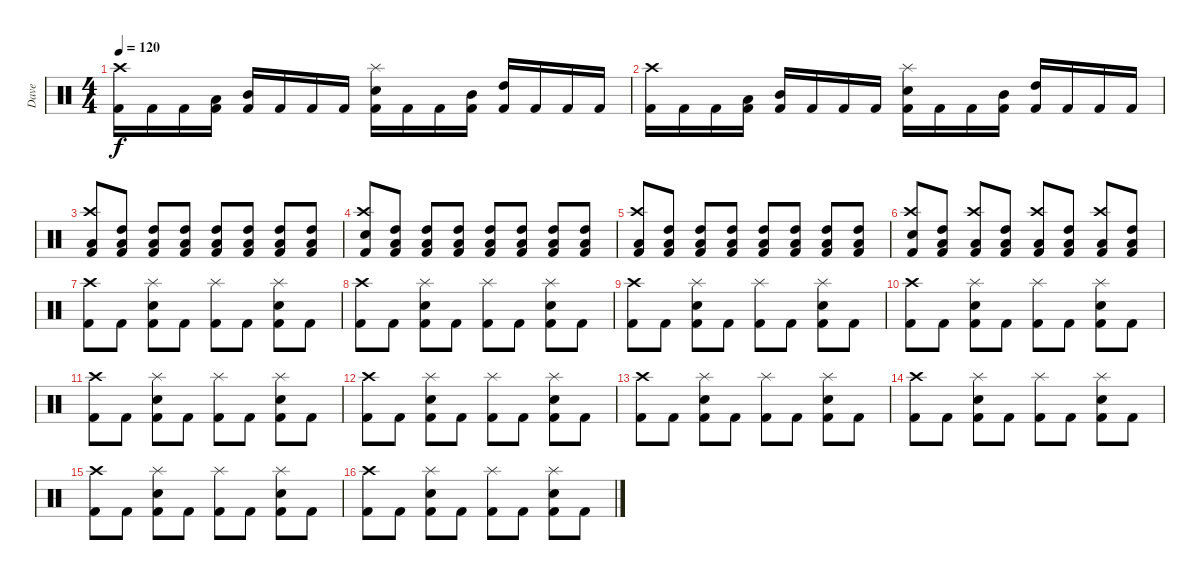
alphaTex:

\track ("Dave" "Dave") {instrument percussion}
\staff {score}
\articulation defaults
\ts (4 4)
\tempo 120
\clef neutral
\ks c
("Kick (hit) 2" "Crash high (hit)").16{dy f} "Kick (hit) 2".16 "Kick (hit) 2".16 ("Kick (hit) 2" "Low Tom (hit)").16 ("Kick (hit) 2" "Mid Tom (hit)").16 "Kick (hit) 2".16 "Kick (hit) 2".16 "Kick (hit) 2".16 ("Kick (hit) 2" "Snare (hit) 2" "Splash (hit)").16 "Kick (hit) 2".16 "Kick (hit) 2".16 ("Kick (hit) 2" "Mid Tom (hit)").16 ("Kick (hit) 2" "High Tom (hit)").16 "Kick (hit) 2".16 "Kick (hit) 2".16 "Kick (hit) 2".16 |
("Kick (hit) 2" "Crash high (hit)").16 "Kick (hit) 2".16 "Kick (hit) 2".16 ("Kick (hit) 2" "Low Tom (hit)").16 ("Kick (hit) 2" "Mid Tom (hit)").16 "Kick (hit) 2".16 "Kick (hit) 2".16 "Kick (hit) 2".16 ("Kick (hit) 2" "Snare (hit) 2" "Splash (hit)").16 "Kick (hit) 2".16 "Kick (hit) 2".16 ("Kick (hit) 2" "Mid Tom (hit)").16 ("Kick (hit) 2" "High Tom (hit)").16 "Kick (hit) 2".16 "Kick (hit) 2".16 "Kick (hit) 2".16 |
("Kick (hit) 2" "Crash high (hit)" "Low Floor Tom (hit)").8 ("Kick (hit) 2" "High Tom (hit)" "Low Floor Tom (hit)").8 ("Kick (hit) 2" "High Tom (hit)" "Low Floor Tom (hit)").8 ("Kick (hit) 2" "High Tom (hit)" "Low Floor Tom (hit)").8 ("Kick (hit) 2" "High Tom (hit)" "Low Floor Tom (hit)").8 ("Kick (hit) 2" "High Tom (hit)" "Low Floor Tom (hit)").8 ("Kick (hit) 2" "High Tom (hit)" "Low Floor Tom (hit)").8 ("Kick (hit) 2" "High Tom (hit)" "Low Floor Tom (hit)").8 |
("Kick (hit) 2" "Snare (hit) 2" "Crash high (hit)").8 ("Kick (hit) 2" "High Tom (hit)" "Low Floor Tom (hit)").8 ("Kick (hit) 2" "High Tom (hit)" "Low Floor Tom (hit)").8 ("Kick (hit) 2" "High Tom (hit)" "Low Floor Tom (hit)").8 ("Kick (hit) 2" "High Tom (hit)" "Low Floor Tom (hit)").8 ("Kick (hit) 2" "High Tom (hit)" "Low Floor Tom (hit)").8 ("Kick (hit) 2" "High Tom (hit)" "Low Floor Tom (hit)").8 ("Kick (hit) 2" "High Tom (hit)" "Low Floor Tom (hit)").8 |
("Kick (hit) 2" "Crash high (hit)" "Low Floor Tom (hit)").8 ("Kick (hit) 2" "High Tom (hit)" "Low Floor Tom (hit)").8 ("Kick (hit) 2" "High Tom (hit)" "Low Floor Tom (hit)").8 ("Kick (hit) 2" "High Tom (hit)" "Low Floor Tom (hit)").8 ("Kick (hit) 2" "High Tom (hit)" "Low Floor Tom (hit)").8 ("Kick (hit) 2" "High Tom (hit)" "Low Floor Tom (hit)").8 ("Kick (hit) 2" "High Tom (hit)" "Low Floor Tom (hit)").8 ("Kick (hit) 2" "High Tom (hit)" "Low Floor Tom (hit)").8 |
("Kick (hit) 2" "Snare (hit) 2" "Crash high (hit)").8 ("Kick (hit) 2" "High Tom (hit)" "Low Floor Tom (hit)").8 ("Kick (hit) 2" "Crash high (hit)" "Low Floor Tom (hit)").8 ("Kick (hit) 2" "High Tom (hit)" "Low Floor Tom (hit)").8 ("Kick (hit) 2" "Crash high (hit)" "Low Floor Tom (hit)").8 ("Kick (hit) 2" "High Tom (hit)" "Low Floor Tom (hit)").8 ("Kick (hit) 2" "Crash high (hit)" "Low Floor Tom (hit)").8 ("Kick (hit) 2" "High Tom (hit)" "Low Floor Tom (hit)").8 |
("Kick (hit) 2" "Crash high (hit)").8 "Kick (hit) 2".8 ("Kick (hit) 2" "Snare (hit) 2" "Splash (hit)").8 "Kick (hit) 2".8 ("Kick (hit) 2" "Splash (hit)").8 "Kick (hit) 2".8 ("Kick (hit) 2" "Snare (hit) 2" "Splash (hit)").8 "Kick (hit) 2".8 |
("Kick (hit) 2" "Crash high (hit)").8 "Kick (hit) 2".8 ("Kick (hit) 2" "Snare (hit) 2" "Splash (hit)").8 "Kick (hit) 2".8 ("Kick (hit) 2" "Splash (hit)").8 "Kick (hit) 2".8 ("Kick (hit) 2" "Snare (hit) 2" "Splash (hit)").8 "Kick (hit) 2".8 |
("Kick (hit) 2" "Crash high (hit)").8 "Kick (hit) 2".8 ("Kick (hit) 2" "Snare (hit) 2" "Splash (hit)").8 "Kick (hit) 2".8 ("Kick (hit) 2" "Splash (hit)").8 "Kick (hit) 2".8 ("Kick (hit) 2" "Snare (hit) 2" "Splash (hit)").8 "Kick (hit) 2".8 |
("Kick (hit) 2" "Crash high (hit)").8 "Kick (hit) 2".8 ("Kick (hit) 2" "Snare (hit) 2" "Splash (hit)").8 "Kick (hit) 2".8 ("Kick (hit) 2" "Splash (hit)").8 "Kick (hit) 2".8 ("Kick (hit) 2" "Snare (hit) 2" "Splash (hit)").8 "Kick (hit) 2".8 |
("Kick (hit) 2" "Crash high (hit)").8 "Kick (hit) 2".8 ("Kick (hit) 2" "Snare (hit) 2" "Splash (hit)").8 "Kick (hit) 2".8 ("Kick (hit) 2" "Splash (hit)").8 "Kick (hit) 2".8 ("Kick (hit) 2" "Snare (hit) 2" "Splash (hit)").8 "Kick (hit) 2".8 |
("Kick (hit) 2" "Crash high (hit)").8 "Kick (hit) 2".8 ("Kick (hit) 2" "Snare (hit) 2" "Splash (hit)").8 "Kick (hit) 2".8 ("Kick (hit) 2" "Splash (hit)").8 "Kick (hit) 2".8 ("Kick (hit) 2" "Snare (hit) 2" "Splash (hit)").8 "Kick (hit) 2".8 |
("Kick (hit) 2" "Crash high (hit)").8 "Kick (hit) 2".8 ("Kick (hit) 2" "Snare (hit) 2" "Splash (hit)").8 "Kick (hit) 2".8 ("Kick (hit) 2" "Splash (hit)").8 "Kick (hit) 2".8 ("Kick (hit) 2" "Snare (hit) 2" "Splash (hit)").8 "Kick (hit) 2".8 |
("Kick (hit) 2" "Crash high (hit)").8 "Kick (hit) 2".8 ("Kick (hit) 2" "Snare (hit) 2" "Splash (hit)").8 "Kick (hit) 2".8 ("Kick (hit) 2" "Splash (hit)").8 "Kick (hit) 2".8 ("Kick (hit) 2" "Snare (hit) 2" "Splash (hit)").8 "Kick (hit) 2".8 |
("Kick (hit) 2" "Crash high (hit)").8 "Kick (hit) 2".8 ("Kick (hit) 2" "Snare (hit) 2" "Splash (hit)").8 "Kick (hit) 2".8 ("Kick (hit) 2" "Splash (hit)").8 "Kick (hit) 2".8 ("Kick (hit) 2" "Snare (hit) 2" "Splash (hit)").8 "Kick (hit) 2".8 |
("Kick (hit) 2" "Crash high (hit)").8 "Kick (hit) 2".8 ("Kick (hit) 2" "Snare (hit) 2" "Splash (hit)").8 "Kick (hit) 2".8 ("Kick (hit) 2" "Splash (hit)").8 "Kick (hit) 2".8 ("Kick (hit) 2" "Snare (hit) 2" "Splash (hit)").8 "Kick (hit) 2".8
